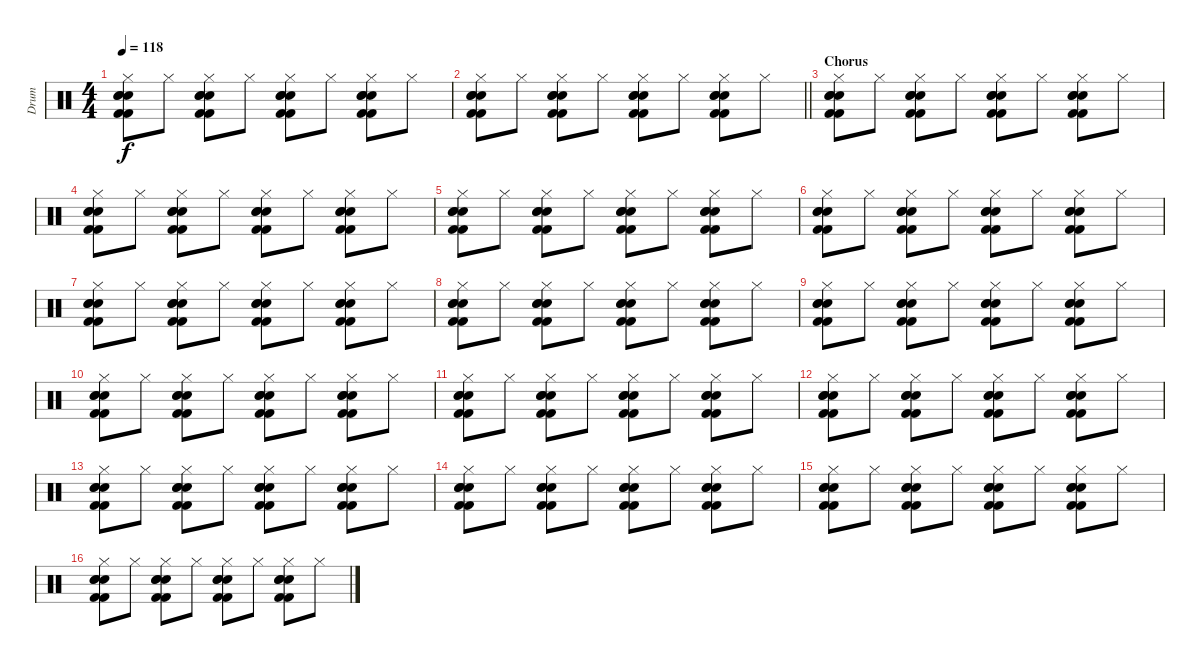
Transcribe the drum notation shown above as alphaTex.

\track ("Drum" "Drum") {instrument percussion}
\staff {score}
\articulation defaults
\ts (4 4)
\tempo 118
\clef neutral
\ks c
("Hi-Hat (closed)" "Kick (hit) 2" "Kick (hit) 2" "Snare (hit) 2" "Snare (hit) 2" "Snare (hit) 2").8{dy f} "Hi-Hat (closed)".8 ("Hi-Hat (closed)" "Kick (hit) 2" "Kick (hit) 2" "Snare (hit) 2" "Snare (hit) 2" "Snare (hit) 2").8 "Hi-Hat (closed)".8 ("Hi-Hat (closed)" "Kick (hit) 2" "Kick (hit) 2" "Snare (hit) 2" "Snare (hit) 2" "Snare (hit) 2").8 "Hi-Hat (closed)".8 ("Hi-Hat (closed)" "Kick (hit) 2" "Kick (hit) 2" "Snare (hit) 2" "Snare (hit) 2" "Snare (hit) 2").8 "Hi-Hat (closed)".8 |
\barLineRight lightlight
("Hi-Hat (closed)" "Kick (hit) 2" "Kick (hit) 2" "Snare (hit) 2" "Snare (hit) 2" "Snare (hit) 2").8 "Hi-Hat (closed)".8 ("Hi-Hat (closed)" "Kick (hit) 2" "Kick (hit) 2" "Snare (hit) 2" "Snare (hit) 2" "Snare (hit) 2").8 "Hi-Hat (closed)".8 ("Hi-Hat (closed)" "Kick (hit) 2" "Kick (hit) 2" "Snare (hit) 2" "Snare (hit) 2" "Snare (hit) 2").8 "Hi-Hat (closed)".8 ("Hi-Hat (closed)" "Kick (hit) 2" "Kick (hit) 2" "Snare (hit) 2" "Snare (hit) 2" "Snare (hit) 2").8 "Hi-Hat (closed)".8 |
\section ("" "Chorus")
("Hi-Hat (closed)" "Kick (hit) 2" "Kick (hit) 2" "Snare (hit) 2" "Snare (hit) 2" "Snare (hit) 2").8 "Hi-Hat (closed)".8 ("Hi-Hat (closed)" "Kick (hit) 2" "Kick (hit) 2" "Snare (hit) 2" "Snare (hit) 2" "Snare (hit) 2").8 "Hi-Hat (closed)".8 ("Hi-Hat (closed)" "Kick (hit) 2" "Kick (hit) 2" "Snare (hit) 2" "Snare (hit) 2" "Snare (hit) 2").8 "Hi-Hat (closed)".8 ("Hi-Hat (closed)" "Kick (hit) 2" "Kick (hit) 2" "Snare (hit) 2" "Snare (hit) 2" "Snare (hit) 2").8 "Hi-Hat (closed)".8 |
("Hi-Hat (closed)" "Kick (hit) 2" "Kick (hit) 2" "Snare (hit) 2" "Snare (hit) 2" "Snare (hit) 2").8 "Hi-Hat (closed)".8 ("Hi-Hat (closed)" "Kick (hit) 2" "Kick (hit) 2" "Snare (hit) 2" "Snare (hit) 2" "Snare (hit) 2").8 "Hi-Hat (closed)".8 ("Hi-Hat (closed)" "Kick (hit) 2" "Kick (hit) 2" "Snare (hit) 2" "Snare (hit) 2" "Snare (hit) 2").8 "Hi-Hat (closed)".8 ("Hi-Hat (closed)" "Kick (hit) 2" "Kick (hit) 2" "Snare (hit) 2" "Snare (hit) 2" "Snare (hit) 2").8 "Hi-Hat (closed)".8 |
("Hi-Hat (closed)" "Kick (hit) 2" "Kick (hit) 2" "Snare (hit) 2" "Snare (hit) 2" "Snare (hit) 2").8 "Hi-Hat (closed)".8 ("Hi-Hat (closed)" "Kick (hit) 2" "Kick (hit) 2" "Snare (hit) 2" "Snare (hit) 2" "Snare (hit) 2").8 "Hi-Hat (closed)".8 ("Hi-Hat (closed)" "Kick (hit) 2" "Kick (hit) 2" "Snare (hit) 2" "Snare (hit) 2" "Snare (hit) 2").8 "Hi-Hat (closed)".8 ("Hi-Hat (closed)" "Kick (hit) 2" "Kick (hit) 2" "Snare (hit) 2" "Snare (hit) 2" "Snare (hit) 2").8 "Hi-Hat (closed)".8 |
("Hi-Hat (closed)" "Kick (hit) 2" "Kick (hit) 2" "Snare (hit) 2" "Snare (hit) 2" "Snare (hit) 2").8 "Hi-Hat (closed)".8 ("Hi-Hat (closed)" "Kick (hit) 2" "Kick (hit) 2" "Snare (hit) 2" "Snare (hit) 2" "Snare (hit) 2").8 "Hi-Hat (closed)".8 ("Hi-Hat (closed)" "Kick (hit) 2" "Kick (hit) 2" "Snare (hit) 2" "Snare (hit) 2" "Snare (hit) 2").8 "Hi-Hat (closed)".8 ("Hi-Hat (closed)" "Kick (hit) 2" "Kick (hit) 2" "Snare (hit) 2" "Snare (hit) 2" "Snare (hit) 2").8 "Hi-Hat (closed)".8 |
("Hi-Hat (closed)" "Kick (hit) 2" "Kick (hit) 2" "Snare (hit) 2" "Snare (hit) 2" "Snare (hit) 2").8 "Hi-Hat (closed)".8 ("Hi-Hat (closed)" "Kick (hit) 2" "Kick (hit) 2" "Snare (hit) 2" "Snare (hit) 2" "Snare (hit) 2").8 "Hi-Hat (closed)".8 ("Hi-Hat (closed)" "Kick (hit) 2" "Kick (hit) 2" "Snare (hit) 2" "Snare (hit) 2" "Snare (hit) 2").8 "Hi-Hat (closed)".8 ("Hi-Hat (closed)" "Kick (hit) 2" "Kick (hit) 2" "Snare (hit) 2" "Snare (hit) 2" "Snare (hit) 2").8 "Hi-Hat (closed)".8 |
("Hi-Hat (closed)" "Kick (hit) 2" "Kick (hit) 2" "Snare (hit) 2" "Snare (hit) 2" "Snare (hit) 2").8 "Hi-Hat (closed)".8 ("Hi-Hat (closed)" "Kick (hit) 2" "Kick (hit) 2" "Snare (hit) 2" "Snare (hit) 2" "Snare (hit) 2").8 "Hi-Hat (closed)".8 ("Hi-Hat (closed)" "Kick (hit) 2" "Kick (hit) 2" "Snare (hit) 2" "Snare (hit) 2" "Snare (hit) 2").8 "Hi-Hat (closed)".8 ("Hi-Hat (closed)" "Kick (hit) 2" "Kick (hit) 2" "Snare (hit) 2" "Snare (hit) 2" "Snare (hit) 2").8 "Hi-Hat (closed)".8 |
("Hi-Hat (closed)" "Kick (hit) 2" "Kick (hit) 2" "Snare (hit) 2" "Snare (hit) 2" "Snare (hit) 2").8 "Hi-Hat (closed)".8 ("Hi-Hat (closed)" "Kick (hit) 2" "Kick (hit) 2" "Snare (hit) 2" "Snare (hit) 2" "Snare (hit) 2").8 "Hi-Hat (closed)".8 ("Hi-Hat (closed)" "Kick (hit) 2" "Kick (hit) 2" "Snare (hit) 2" "Snare (hit) 2" "Snare (hit) 2").8 "Hi-Hat (closed)".8 ("Hi-Hat (closed)" "Kick (hit) 2" "Kick (hit) 2" "Snare (hit) 2" "Snare (hit) 2" "Snare (hit) 2").8 "Hi-Hat (closed)".8 |
("Hi-Hat (closed)" "Kick (hit) 2" "Kick (hit) 2" "Snare (hit) 2" "Snare (hit) 2" "Snare (hit) 2").8 "Hi-Hat (closed)".8 ("Hi-Hat (closed)" "Kick (hit) 2" "Kick (hit) 2" "Snare (hit) 2" "Snare (hit) 2" "Snare (hit) 2").8 "Hi-Hat (closed)".8 ("Hi-Hat (closed)" "Kick (hit) 2" "Kick (hit) 2" "Snare (hit) 2" "Snare (hit) 2" "Snare (hit) 2").8 "Hi-Hat (closed)".8 ("Hi-Hat (closed)" "Kick (hit) 2" "Kick (hit) 2" "Snare (hit) 2" "Snare (hit) 2" "Snare (hit) 2").8 "Hi-Hat (closed)".8 |
("Hi-Hat (closed)" "Kick (hit) 2" "Kick (hit) 2" "Snare (hit) 2" "Snare (hit) 2" "Snare (hit) 2").8 "Hi-Hat (closed)".8 ("Hi-Hat (closed)" "Kick (hit) 2" "Kick (hit) 2" "Snare (hit) 2" "Snare (hit) 2" "Snare (hit) 2").8 "Hi-Hat (closed)".8 ("Hi-Hat (closed)" "Kick (hit) 2" "Kick (hit) 2" "Snare (hit) 2" "Snare (hit) 2" "Snare (hit) 2").8 "Hi-Hat (closed)".8 ("Hi-Hat (closed)" "Kick (hit) 2" "Kick (hit) 2" "Snare (hit) 2" "Snare (hit) 2" "Snare (hit) 2").8 "Hi-Hat (closed)".8 |
("Hi-Hat (closed)" "Kick (hit) 2" "Kick (hit) 2" "Snare (hit) 2" "Snare (hit) 2" "Snare (hit) 2").8 "Hi-Hat (closed)".8 ("Hi-Hat (closed)" "Kick (hit) 2" "Kick (hit) 2" "Snare (hit) 2" "Snare (hit) 2" "Snare (hit) 2").8 "Hi-Hat (closed)".8 ("Hi-Hat (closed)" "Kick (hit) 2" "Kick (hit) 2" "Snare (hit) 2" "Snare (hit) 2" "Snare (hit) 2").8 "Hi-Hat (closed)".8 ("Hi-Hat (closed)" "Kick (hit) 2" "Kick (hit) 2" "Snare (hit) 2" "Snare (hit) 2" "Snare (hit) 2").8 "Hi-Hat (closed)".8 |
("Hi-Hat (closed)" "Kick (hit) 2" "Kick (hit) 2" "Snare (hit) 2" "Snare (hit) 2" "Snare (hit) 2").8 "Hi-Hat (closed)".8 ("Hi-Hat (closed)" "Kick (hit) 2" "Kick (hit) 2" "Snare (hit) 2" "Snare (hit) 2" "Snare (hit) 2").8 "Hi-Hat (closed)".8 ("Hi-Hat (closed)" "Kick (hit) 2" "Kick (hit) 2" "Snare (hit) 2" "Snare (hit) 2" "Snare (hit) 2").8 "Hi-Hat (closed)".8 ("Hi-Hat (closed)" "Kick (hit) 2" "Kick (hit) 2" "Snare (hit) 2" "Snare (hit) 2" "Snare (hit) 2").8 "Hi-Hat (closed)".8 |
("Hi-Hat (closed)" "Kick (hit) 2" "Kick (hit) 2" "Snare (hit) 2" "Snare (hit) 2" "Snare (hit) 2").8 "Hi-Hat (closed)".8 ("Hi-Hat (closed)" "Kick (hit) 2" "Kick (hit) 2" "Snare (hit) 2" "Snare (hit) 2" "Snare (hit) 2").8 "Hi-Hat (closed)".8 ("Hi-Hat (closed)" "Kick (hit) 2" "Kick (hit) 2" "Snare (hit) 2" "Snare (hit) 2" "Snare (hit) 2").8 "Hi-Hat (closed)".8 ("Hi-Hat (closed)" "Kick (hit) 2" "Kick (hit) 2" "Snare (hit) 2" "Snare (hit) 2" "Snare (hit) 2").8 "Hi-Hat (closed)".8 |
("Hi-Hat (closed)" "Kick (hit) 2" "Kick (hit) 2" "Snare (hit) 2" "Snare (hit) 2" "Snare (hit) 2").8 "Hi-Hat (closed)".8 ("Hi-Hat (closed)" "Kick (hit) 2" "Kick (hit) 2" "Snare (hit) 2" "Snare (hit) 2" "Snare (hit) 2").8 "Hi-Hat (closed)".8 ("Hi-Hat (closed)" "Kick (hit) 2" "Kick (hit) 2" "Snare (hit) 2" "Snare (hit) 2" "Snare (hit) 2").8 "Hi-Hat (closed)".8 ("Hi-Hat (closed)" "Kick (hit) 2" "Kick (hit) 2" "Snare (hit) 2" "Snare (hit) 2" "Snare (hit) 2").8 "Hi-Hat (closed)".8 |
("Hi-Hat (closed)" "Kick (hit) 2" "Kick (hit) 2" "Snare (hit) 2" "Snare (hit) 2" "Snare (hit) 2").8 "Hi-Hat (closed)".8 ("Hi-Hat (closed)" "Kick (hit) 2" "Kick (hit) 2" "Snare (hit) 2" "Snare (hit) 2" "Snare (hit) 2").8 "Hi-Hat (closed)".8 ("Hi-Hat (closed)" "Kick (hit) 2" "Kick (hit) 2" "Snare (hit) 2" "Snare (hit) 2" "Snare (hit) 2").8 "Hi-Hat (closed)".8 ("Hi-Hat (closed)" "Kick (hit) 2" "Kick (hit) 2" "Snare (hit) 2" "Snare (hit) 2" "Snare (hit) 2").8 "Hi-Hat (closed)".8
